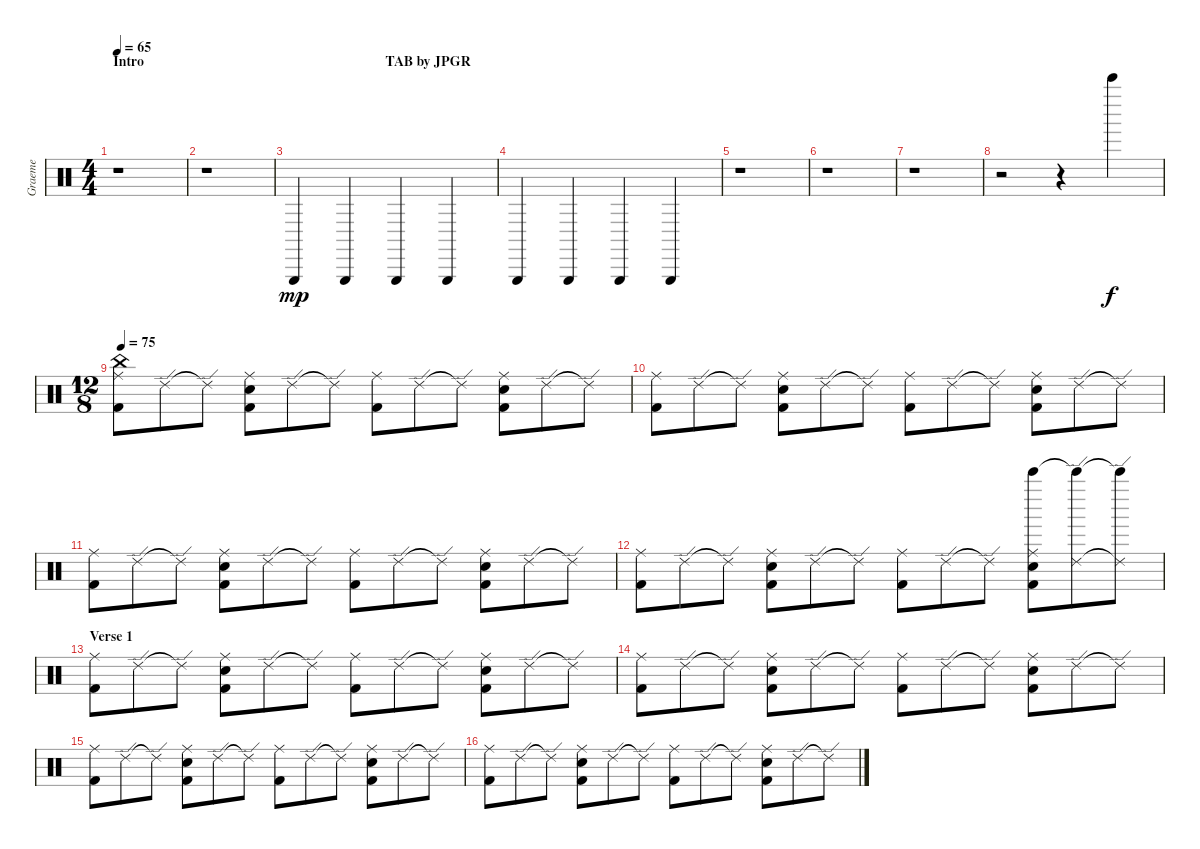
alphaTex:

\track ("Graeme" "Graeme") {instrument percussion}
\staff {score}
\articulation defaults
\ts (4 4)
\section ("" "Intro                                                                     TAB by JPGR")
\tempo 65
\clef neutral
\ks c
r.1{dy mp} |
r.1 |
"Triangle (hit)".4 "Triangle (hit)".4 "Triangle (hit)".4 "Triangle (hit)".4 |
"Triangle (hit)".4 "Triangle (hit)".4 "Triangle (hit)".4 "Triangle (hit)".4 |
r.1 |
r.1 |
r.1 |
r.2 r.4 "Bell Tree (hit)".4{dy f} |
\ts (12 8)
\tempo 75
("China (hit)" "Ride (middle)" "Kick (hit) 2").8 "Ride (edge) 2".8 "Ride (edge) 2"{t}.8 ("Ride (middle)" "Electric Snare (hit)" "Kick (hit) 2").8 "Ride (edge) 2".8 "Ride (edge) 2"{t}.8 ("Ride (middle)" "Kick (hit) 2").8 "Ride (edge) 2".8 "Ride (edge) 2"{t}.8 ("Ride (middle)" "Electric Snare (hit)" "Kick (hit) 2").8 "Ride (edge) 2".8 "Ride (edge) 2"{t}.8 |
("Ride (middle)" "Kick (hit) 2").8 "Ride (edge) 2".8 "Ride (edge) 2"{t}.8 ("Ride (middle)" "Electric Snare (hit)" "Kick (hit) 2").8 "Ride (edge) 2".8 "Ride (edge) 2"{t}.8 ("Ride (middle)" "Kick (hit) 2").8 "Ride (edge) 2".8 "Ride (edge) 2"{t}.8 ("Ride (middle)" "Electric Snare (hit)" "Kick (hit) 2").8 "Ride (edge) 2".8 "Ride (edge) 2"{t}.8 |
("Ride (middle)" "Kick (hit) 2").8 "Ride (edge) 2".8 "Ride (edge) 2"{t}.8 ("Ride (middle)" "Electric Snare (hit)" "Kick (hit) 2").8 "Ride (edge) 2".8 "Ride (edge) 2"{t}.8 ("Ride (middle)" "Kick (hit) 2").8 "Ride (edge) 2".8 "Ride (edge) 2"{t}.8 ("Ride (middle)" "Electric Snare (hit)" "Kick (hit) 2").8 "Ride (edge) 2".8 "Ride (edge) 2"{t}.8 |
("Ride (middle)" "Kick (hit) 2").8 "Ride (edge) 2".8 "Ride (edge) 2"{t}.8 ("Ride (middle)" "Electric Snare (hit)" "Kick (hit) 2").8 "Ride (edge) 2".8 "Ride (edge) 2"{t}.8 ("Ride (middle)" "Kick (hit) 2").8 "Ride (edge) 2".8 "Ride (edge) 2"{t}.8 ("Bell Tree (hit)" "Ride (middle)" "Electric Snare (hit)" "Kick (hit) 2").8 ("Bell Tree (hit)"{t} "Ride (edge) 2").8 ("Bell Tree (hit)"{t} "Ride (edge) 2"{t}).8 |
\section ("" "Verse 1")
("Ride (middle)" "Kick (hit) 2").8 "Ride (edge) 2".8 "Ride (edge) 2"{t}.8 ("Ride (middle)" "Electric Snare (hit)" "Kick (hit) 2").8 "Ride (edge) 2".8 "Ride (edge) 2"{t}.8 ("Ride (middle)" "Kick (hit) 2").8 "Ride (edge) 2".8 "Ride (edge) 2"{t}.8 ("Ride (middle)" "Electric Snare (hit)" "Kick (hit) 2").8 "Ride (edge) 2".8 "Ride (edge) 2"{t}.8 |
("Ride (middle)" "Kick (hit) 2").8 "Ride (edge) 2".8 "Ride (edge) 2"{t}.8 ("Ride (middle)" "Electric Snare (hit)" "Kick (hit) 2").8 "Ride (edge) 2".8 "Ride (edge) 2"{t}.8 ("Ride (middle)" "Kick (hit) 2").8 "Ride (edge) 2".8 "Ride (edge) 2"{t}.8 ("Ride (middle)" "Electric Snare (hit)" "Kick (hit) 2").8 "Ride (edge) 2".8 "Ride (edge) 2"{t}.8 |
("Ride (middle)" "Kick (hit) 2").8 "Ride (edge) 2".8 "Ride (edge) 2"{t}.8 ("Ride (middle)" "Electric Snare (hit)" "Kick (hit) 2").8 "Ride (edge) 2".8 "Ride (edge) 2"{t}.8 ("Ride (middle)" "Kick (hit) 2").8 "Ride (edge) 2".8 "Ride (edge) 2"{t}.8 ("Ride (middle)" "Electric Snare (hit)" "Kick (hit) 2").8 "Ride (edge) 2".8 "Ride (edge) 2"{t}.8 |
("Ride (middle)" "Kick (hit) 2").8 "Ride (edge) 2".8 "Ride (edge) 2"{t}.8 ("Ride (middle)" "Electric Snare (hit)" "Kick (hit) 2").8 "Ride (edge) 2".8 "Ride (edge) 2"{t}.8 ("Ride (middle)" "Kick (hit) 2").8 "Ride (edge) 2".8 "Ride (edge) 2"{t}.8 ("Ride (middle)" "Electric Snare (hit)" "Kick (hit) 2").8 "Ride (edge) 2".8 "Ride (edge) 2"{t}.8
